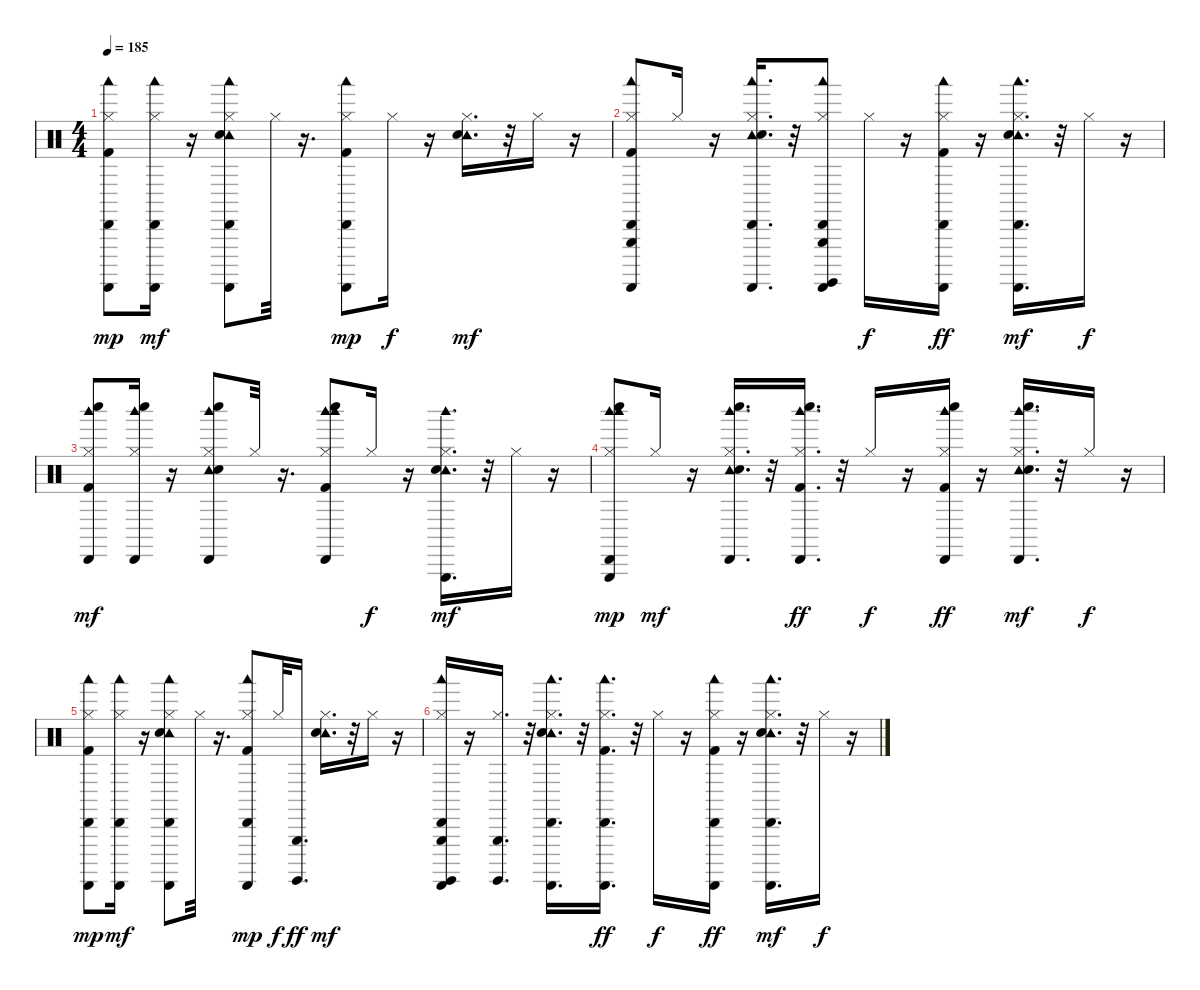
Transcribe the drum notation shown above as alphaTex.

\track "" {instrument percussion}
\staff {score}
\articulation defaults
\ts (4 4)
\tempo 185
\clef neutral
\ks c
("Woodblock low (hit)" "Cabasa (hit)" "Guiro (scrap-return)" "Hi-Hat (closed)" "Kick (hit) 2").8{dy mp} ("Woodblock low (hit)" "Cabasa (hit)" "Guiro (scrap-return)" "Hi-Hat (closed)").16{dy mf} r.16 ("Guiro (scrap-return)" "Woodblock low (hit)" "Cabasa (hit)" "Tambourine (hit)" "Hi-Hat (closed)" "Snare (hit) 2").8 "Hi-Hat (closed)".32 r.16{d} ("Woodblock low (hit)" "Guiro (scrap-return)" "Cabasa (hit)" "Hi-Hat (closed)" "Kick (hit) 2").8{dy mp} "Hi-Hat (closed)".16{dy f} r.16 ("Tambourine (hit)" "Hi-Hat (closed)" "Snare (hit) 2").16{d dy mf} r.32 "Hi-Hat (closed)".16 r.16 |
("Cabasa (hit)" "Woodblock low (hit)" "Guiro (scrap-return)" "Hi-Hat (closed)" "Kick (hit) 2" "Triangle (hit)").8 "Hi-Hat (closed)".16 r.16 ("Cabasa (hit)" "Woodblock low (hit)" "Guiro (scrap-return)" "Tambourine (hit)" "Hi-Hat (closed)" "Snare (hit) 2").16{d} r.32 ("Woodblock low (hit)" "Cabasa (hit)" "Guiro (scrap-return)" "Surdo (hit)" "Triangle (hit)" "Hi-Hat (closed)").8 "Hi-Hat (closed)".16{dy f} r.16 ("Cabasa (hit)" "Woodblock low (hit)" "Guiro (scrap-return)" "Hi-Hat (closed)" "Kick (hit) 2").16{dy ff} r.16 ("Woodblock low (hit)" "Cabasa (hit)" "Guiro (scrap-return)" "Tambourine (hit)" "Hi-Hat (closed)" "Snare (hit) 2").16{d dy mf} r.32 "Hi-Hat (closed)".16{dy f} r.16 |
("Cabasa (hit)" "Whistle low (hit)" "Woodblock high (hit)" "Hi-Hat (closed)" "Kick (hit) 2").8{dy mf} ("Cabasa (hit)" "Whistle low (hit)" "Woodblock high (hit)" "Hi-Hat (closed)").16 r.16 ("Whistle low (hit)" "Cabasa (hit)" "Woodblock high (hit)" "Tambourine (hit)" "Hi-Hat (closed)" "Snare (hit) 2").8 "Hi-Hat (closed)".32 r.16{d} ("Whistle low (hit)" "Woodblock high (hit)" "Cabasa (hit)" "Hi-Hat (closed)" "Kick (hit) 2" "Woodblock high (hit)").8 "Hi-Hat (closed)".16{dy f} r.16 ("Tambourine (hit)" "Hi-Hat (closed)" "Snare (hit) 2" "Triangle (hit)" "Woodblock high (hit)").16{d dy mf} r.32 "Hi-Hat (closed)".16 r.16 |
("Triangle (hit)" "Woodblock high (hit)" "Cabasa (hit)" "Whistle low (hit)" "Woodblock high (hit)" "Hi-Hat (closed)").8{dy mp} "Hi-Hat (closed)".16{dy mf} r.16 ("Whistle low (hit)" "Cabasa (hit)" "Woodblock high (hit)" "Tambourine (hit)" "Hi-Hat (closed)" "Snare (hit) 2").16{d} r.32 ("Whistle low (hit)" "Cabasa (hit)" "Woodblock high (hit)" "Hi-Hat (closed)" "Kick (hit) 2").16{d dy ff} r.32 "Hi-Hat (closed)".16{dy f} r.16 ("Woodblock high (hit)" "Cabasa (hit)" "Whistle low (hit)" "Hi-Hat (closed)" "Kick (hit) 2").16{dy ff} r.16 ("Whistle low (hit)" "Cabasa (hit)" "Woodblock high (hit)" "Tambourine (hit)" "Hi-Hat (closed)" "Snare (hit) 2").16{d dy mf} r.32 "Hi-Hat (closed)".16{dy f} r.16 |
("Woodblock low (hit)" "Cabasa (hit)" "Guiro (scrap-return)" "Hi-Hat (closed)" "Kick (hit) 2").8{dy mp} ("Cabasa (hit)" "Woodblock low (hit)" "Guiro (scrap-return)" "Hi-Hat (closed)").16{dy mf} r.16 ("Guiro (scrap-return)" "Cabasa (hit)" "Woodblock low (hit)" "Tambourine (hit)" "Hi-Hat (closed)" "Snare (hit) 2").8 "Hi-Hat (closed)".32 r.16{d} ("Woodblock low (hit)" "Guiro (scrap-return)" "Cabasa (hit)" "Hi-Hat (closed)" "Kick (hit) 2").8{dy mp} "Hi-Hat (closed)".32{dy f} ("Triangle (hit)" "Surdo (hit)").16{d dy ff} ("Tambourine (hit)" "Hi-Hat (closed)" "Snare (hit) 2").16{d dy mf} r.32 "Hi-Hat (closed)".16 r.16 |
("Cabasa (hit)" "Woodblock low (hit)" "Guiro (scrap-return)" "Surdo (hit)" "Triangle (hit)" "Hi-Hat (closed)").16 r.16 ("Hi-Hat (closed)" "Surdo (hit)" "Triangle (hit)").16{d} r.32 ("Cabasa (hit)" "Woodblock low (hit)" "Guiro (scrap-return)" "Tambourine (hit)" "Hi-Hat (closed)" "Snare (hit) 2").16{d} r.32 ("Cabasa (hit)" "Woodblock low (hit)" "Guiro (scrap-return)" "Hi-Hat (closed)" "Kick (hit) 2").16{d dy ff} r.32 "Hi-Hat (closed)".16{dy f} r.16 ("Woodblock low (hit)" "Cabasa (hit)" "Guiro (scrap-return)" "Hi-Hat (closed)" "Kick (hit) 2").16{dy ff} r.16 ("Woodblock low (hit)" "Guiro (scrap-return)" "Cabasa (hit)" "Tambourine (hit)" "Hi-Hat (closed)" "Snare (hit) 2").16{d dy mf} r.32 "Hi-Hat (closed)".16{dy f} r.16
